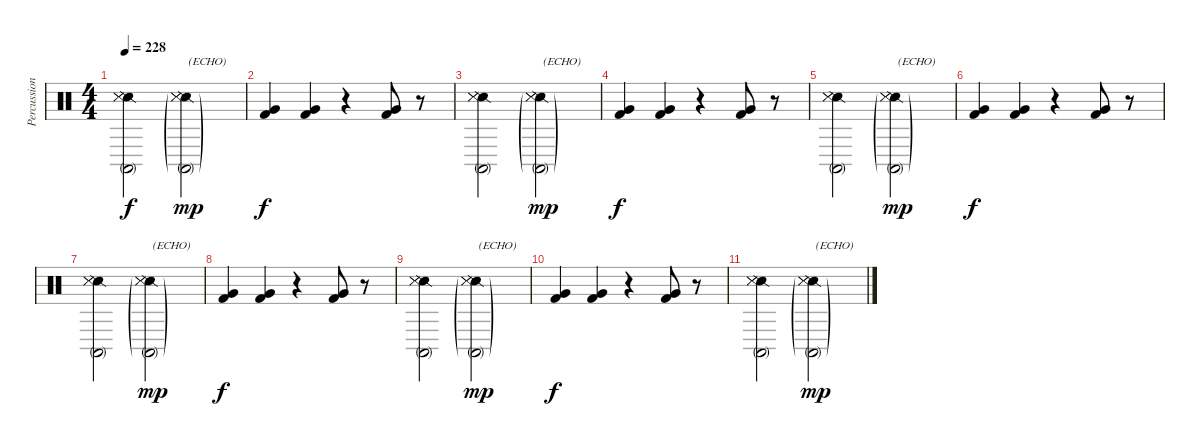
\track ("Percussions" "Percussion") {instrument percussion}
\staff {score}
\articulation defaults
\ts (4 4)
\tempo 228
\clef neutral
\ks c
("Snare (side stick) 2" "Snare (side stick) 3" "Conga high (mute)" "Metronome (hit)").2{dy f} ("Snare (side stick) 2"{g} "Snare (side stick) 3"{g} "Conga high (mute)"{g} "Metronome (hit)"{g}).2{txt "(ECHO)" dy mp} |
("Kick (hit) 2" "Very Low Tom (hit)").4{dy f} ("Kick (hit) 2" "Very Low Tom (hit)").4 r.4 ("Kick (hit) 2" "Very Low Tom (hit)").8 r.8 |
("Snare (side stick) 2" "Snare (side stick) 3" "Conga high (mute)" "Metronome (hit)").2 ("Snare (side stick) 2"{g} "Snare (side stick) 3"{g} "Conga high (mute)"{g} "Metronome (hit)"{g}).2{txt "(ECHO)" dy mp} |
("Kick (hit) 2" "Very Low Tom (hit)").4{dy f} ("Kick (hit) 2" "Very Low Tom (hit)").4 r.4 ("Kick (hit) 2" "Very Low Tom (hit)").8 r.8 |
("Snare (side stick) 2" "Snare (side stick) 3" "Conga high (mute)" "Metronome (hit)").2 ("Snare (side stick) 2"{g} "Snare (side stick) 3"{g} "Conga high (mute)"{g} "Metronome (hit)"{g}).2{txt "(ECHO)" dy mp} |
("Kick (hit) 2" "Very Low Tom (hit)").4{dy f} ("Kick (hit) 2" "Very Low Tom (hit)").4 r.4 ("Kick (hit) 2" "Very Low Tom (hit)").8 r.8 |
("Snare (side stick) 2" "Snare (side stick) 3" "Conga high (mute)" "Metronome (hit)").2 ("Snare (side stick) 2"{g} "Snare (side stick) 3"{g} "Conga high (mute)"{g} "Metronome (hit)"{g}).2{txt "(ECHO)" dy mp} |
("Kick (hit) 2" "Very Low Tom (hit)").4{dy f} ("Kick (hit) 2" "Very Low Tom (hit)").4 r.4 ("Kick (hit) 2" "Very Low Tom (hit)").8 r.8 |
("Snare (side stick) 2" "Snare (side stick) 3" "Conga high (mute)" "Metronome (hit)").2 ("Snare (side stick) 2"{g} "Snare (side stick) 3"{g} "Conga high (mute)"{g} "Metronome (hit)"{g}).2{txt "(ECHO)" dy mp} |
("Kick (hit) 2" "Very Low Tom (hit)").4{dy f} ("Kick (hit) 2" "Very Low Tom (hit)").4 r.4 ("Kick (hit) 2" "Very Low Tom (hit)").8 r.8 |
("Snare (side stick) 2" "Snare (side stick) 3" "Conga high (mute)" "Metronome (hit)").2 ("Snare (side stick) 2"{g} "Snare (side stick) 3"{g} "Conga high (mute)"{g} "Metronome (hit)"{g}).2{txt "(ECHO)" dy mp}
